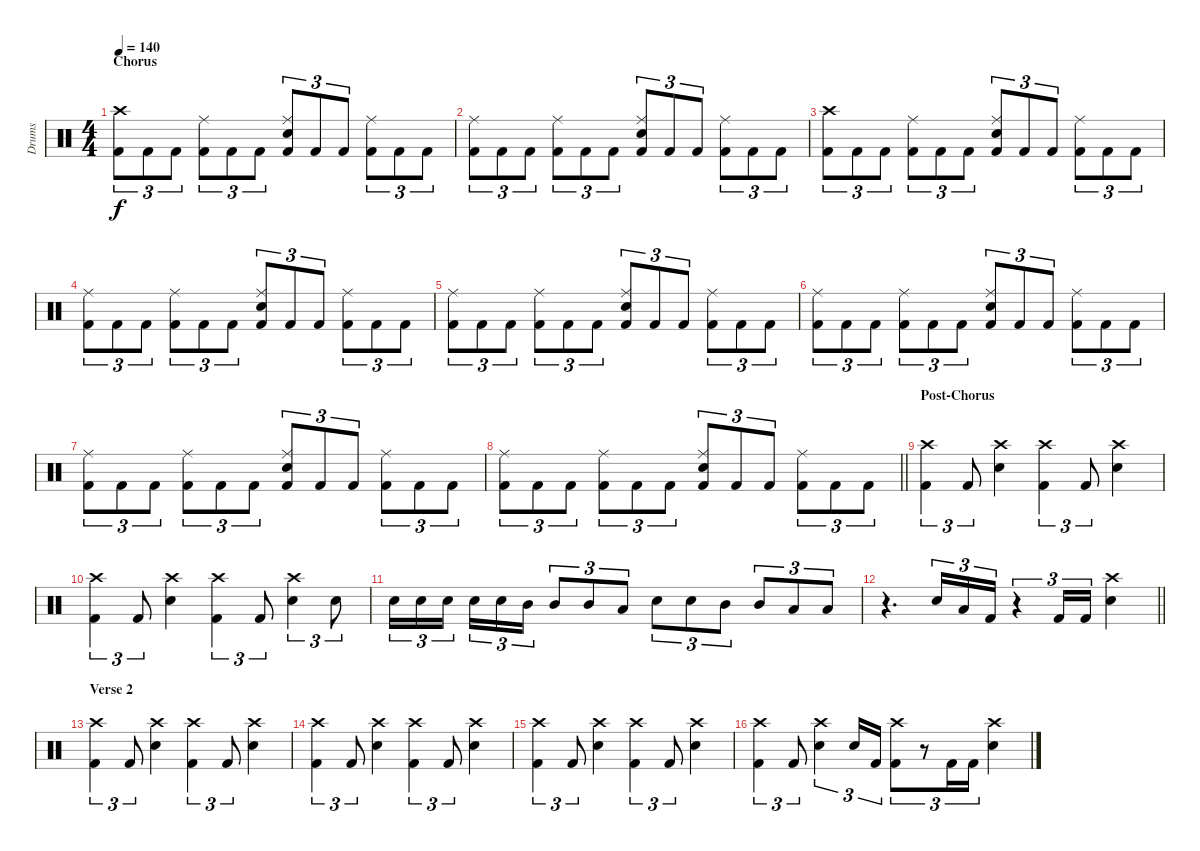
\track ("Drums" "Drums") {instrument percussion}
\staff {score}
\articulation defaults
\ts (4 4)
\section ("" "Chorus")
\tempo 140
\clef neutral
\ks c
("Crash high (hit)" "Kick (hit) 2").8{tu (3 2) dy f} "Kick (hit) 2".8{tu (3 2)} "Kick (hit) 2".8{tu (3 2)} ("Ride (middle)" "Kick (hit) 2").8{tu (3 2)} "Kick (hit) 2".8{tu (3 2)} "Kick (hit) 2".8{tu (3 2)} ("Ride (middle)" "Snare (hit) 2" "Kick (hit) 2").8{tu (3 2)} "Kick (hit) 2".8{tu (3 2)} "Kick (hit) 2".8{tu (3 2)} ("Ride (middle)" "Kick (hit) 2").8{tu (3 2)} "Kick (hit) 2".8{tu (3 2)} "Kick (hit) 2".8{tu (3 2)} |
("Ride (middle)" "Kick (hit) 2").8{tu (3 2)} "Kick (hit) 2".8{tu (3 2)} "Kick (hit) 2".8{tu (3 2)} ("Ride (middle)" "Kick (hit) 2").8{tu (3 2)} "Kick (hit) 2".8{tu (3 2)} "Kick (hit) 2".8{tu (3 2)} ("Ride (middle)" "Snare (hit) 2" "Kick (hit) 2").8{tu (3 2)} "Kick (hit) 2".8{tu (3 2)} "Kick (hit) 2".8{tu (3 2)} ("Ride (middle)" "Kick (hit) 2").8{tu (3 2)} "Kick (hit) 2".8{tu (3 2)} "Kick (hit) 2".8{tu (3 2)} |
("Crash high (hit)" "Kick (hit) 2").8{tu (3 2)} "Kick (hit) 2".8{tu (3 2)} "Kick (hit) 2".8{tu (3 2)} ("Ride (middle)" "Kick (hit) 2").8{tu (3 2)} "Kick (hit) 2".8{tu (3 2)} "Kick (hit) 2".8{tu (3 2)} ("Ride (middle)" "Snare (hit) 2" "Kick (hit) 2").8{tu (3 2)} "Kick (hit) 2".8{tu (3 2)} "Kick (hit) 2".8{tu (3 2)} ("Ride (middle)" "Kick (hit) 2").8{tu (3 2)} "Kick (hit) 2".8{tu (3 2)} "Kick (hit) 2".8{tu (3 2)} |
("Ride (middle)" "Kick (hit) 2").8{tu (3 2)} "Kick (hit) 2".8{tu (3 2)} "Kick (hit) 2".8{tu (3 2)} ("Ride (middle)" "Kick (hit) 2").8{tu (3 2)} "Kick (hit) 2".8{tu (3 2)} "Kick (hit) 2".8{tu (3 2)} ("Ride (middle)" "Snare (hit) 2" "Kick (hit) 2").8{tu (3 2)} "Kick (hit) 2".8{tu (3 2)} "Kick (hit) 2".8{tu (3 2)} ("Ride (middle)" "Kick (hit) 2").8{tu (3 2)} "Kick (hit) 2".8{tu (3 2)} "Kick (hit) 2".8{tu (3 2)} |
("Ride (middle)" "Kick (hit) 2").8{tu (3 2)} "Kick (hit) 2".8{tu (3 2)} "Kick (hit) 2".8{tu (3 2)} ("Ride (middle)" "Kick (hit) 2").8{tu (3 2)} "Kick (hit) 2".8{tu (3 2)} "Kick (hit) 2".8{tu (3 2)} ("Ride (middle)" "Snare (hit) 2" "Kick (hit) 2").8{tu (3 2)} "Kick (hit) 2".8{tu (3 2)} "Kick (hit) 2".8{tu (3 2)} ("Ride (middle)" "Kick (hit) 2").8{tu (3 2)} "Kick (hit) 2".8{tu (3 2)} "Kick (hit) 2".8{tu (3 2)} |
("Ride (middle)" "Kick (hit) 2").8{tu (3 2)} "Kick (hit) 2".8{tu (3 2)} "Kick (hit) 2".8{tu (3 2)} ("Ride (middle)" "Kick (hit) 2").8{tu (3 2)} "Kick (hit) 2".8{tu (3 2)} "Kick (hit) 2".8{tu (3 2)} ("Ride (middle)" "Snare (hit) 2" "Kick (hit) 2").8{tu (3 2)} "Kick (hit) 2".8{tu (3 2)} "Kick (hit) 2".8{tu (3 2)} ("Ride (middle)" "Kick (hit) 2").8{tu (3 2)} "Kick (hit) 2".8{tu (3 2)} "Kick (hit) 2".8{tu (3 2)} |
("Ride (middle)" "Kick (hit) 2").8{tu (3 2)} "Kick (hit) 2".8{tu (3 2)} "Kick (hit) 2".8{tu (3 2)} ("Ride (middle)" "Kick (hit) 2").8{tu (3 2)} "Kick (hit) 2".8{tu (3 2)} "Kick (hit) 2".8{tu (3 2)} ("Ride (middle)" "Snare (hit) 2" "Kick (hit) 2").8{tu (3 2)} "Kick (hit) 2".8{tu (3 2)} "Kick (hit) 2".8{tu (3 2)} ("Ride (middle)" "Kick (hit) 2").8{tu (3 2)} "Kick (hit) 2".8{tu (3 2)} "Kick (hit) 2".8{tu (3 2)} |
\barLineRight lightlight
("Ride (middle)" "Kick (hit) 2").8{tu (3 2)} "Kick (hit) 2".8{tu (3 2)} "Kick (hit) 2".8{tu (3 2)} ("Ride (middle)" "Kick (hit) 2").8{tu (3 2)} "Kick (hit) 2".8{tu (3 2)} "Kick (hit) 2".8{tu (3 2)} ("Ride (middle)" "Snare (hit) 2" "Kick (hit) 2").8{tu (3 2)} "Kick (hit) 2".8{tu (3 2)} "Kick (hit) 2".8{tu (3 2)} ("Ride (middle)" "Kick (hit) 2").8{tu (3 2)} "Kick (hit) 2".8{tu (3 2)} "Kick (hit) 2".8{tu (3 2)} |
\section ("" "Post-Chorus")
("Crash high (hit)" "Kick (hit) 2").4{tu (3 2)} "Kick (hit) 2".8{tu (3 2)} ("Crash high (hit)" "Snare (hit) 2").4 ("Crash high (hit)" "Kick (hit) 2").4{tu (3 2)} "Kick (hit) 2".8{tu (3 2)} ("Crash high (hit)" "Snare (hit) 2").4 |
("Crash high (hit)" "Kick (hit) 2").4{tu (3 2)} "Kick (hit) 2".8{tu (3 2)} ("Crash high (hit)" "Snare (hit) 2").4 ("Crash high (hit)" "Kick (hit) 2").4{tu (3 2)} "Kick (hit) 2".8{tu (3 2)} ("Crash high (hit)" "Snare (hit) 2").4{tu (3 2)} "Snare (hit) 2".8{tu (3 2)} |
"Snare (hit) 2".16{tu (3 2)} "Snare (hit) 2".16{tu (3 2)} "Snare (hit) 2".16{tu (3 2) beam splitsecondary} "Snare (hit) 2".16{tu (3 2)} "Snare (hit) 2".16{tu (3 2)} "Mid Tom (hit)".16{tu (3 2)} "Mid Tom (hit)".8{tu (3 2)} "Mid Tom (hit)".8{tu (3 2)} "Low Tom (hit)".8{tu (3 2)} "Snare (hit) 2".8{tu (3 2)} "Snare (hit) 2".8{tu (3 2)} "Mid Tom (hit)".8{tu (3 2)} "Mid Tom (hit)".8{tu (3 2)} "Low Tom (hit)".8{tu (3 2)} "Low Tom (hit)".8{tu (3 2)} |
\barLineRight lightlight
r.4{d} "Snare (hit) 2".16{tu (3 2)} "Low Floor Tom (hit)".16{tu (3 2)} "Kick (hit) 2".16{tu (3 2)} r.4{tu (3 2)} "Kick (hit) 2".16{tu (3 2)} "Kick (hit) 2".16{tu (3 2)} ("Crash high (hit)" "Snare (hit) 2").4 |
\section ("" "Verse 2")
("Crash high (hit)" "Kick (hit) 2").4{tu (3 2)} "Kick (hit) 2".8{tu (3 2)} ("Crash high (hit)" "Snare (hit) 2").4 ("Crash high (hit)" "Kick (hit) 2").4{tu (3 2)} "Kick (hit) 2".8{tu (3 2)} ("Crash high (hit)" "Snare (hit) 2").4 |
("Crash high (hit)" "Kick (hit) 2").4{tu (3 2)} "Kick (hit) 2".8{tu (3 2)} ("Crash high (hit)" "Snare (hit) 2").4 ("Crash high (hit)" "Kick (hit) 2").4{tu (3 2)} "Kick (hit) 2".8{tu (3 2)} ("Crash high (hit)" "Snare (hit) 2").4 |
("Crash high (hit)" "Kick (hit) 2").4{tu (3 2)} "Kick (hit) 2".8{tu (3 2)} ("Crash high (hit)" "Snare (hit) 2").4 ("Crash high (hit)" "Kick (hit) 2").4{tu (3 2)} "Kick (hit) 2".8{tu (3 2)} ("Crash high (hit)" "Snare (hit) 2").4 |
("Crash high (hit)" "Kick (hit) 2").4{tu (3 2)} "Kick (hit) 2".8{tu (3 2)} ("Crash high (hit)" "Snare (hit) 2").4{tu (3 2)} "Snare (hit) 2".16{tu (3 2)} "Kick (hit) 2".16{tu (3 2)} ("Crash high (hit)" "Kick (hit) 2").8{tu (3 2)} r.8{tu (3 2)} "Kick (hit) 2".16{tu (3 2)} "Kick (hit) 2".16{tu (3 2)} ("Crash high (hit)" "Snare (hit) 2").4
